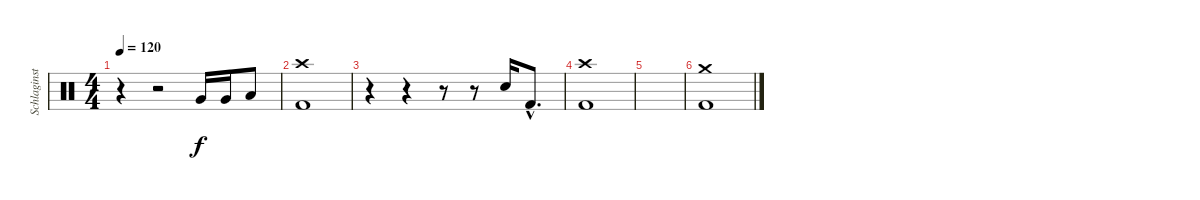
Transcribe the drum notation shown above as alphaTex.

\track ("Schlaginstrumente - Auswahl" "Schlaginst") {instrument percussion}
\staff {score}
\articulation defaults
\ts (4 4)
\tempo 120
\clef neutral
\ks c
r.4{dy f} r.2 "Very Low Tom (hit)".16 "Very Low Tom (hit)".16 "Low Floor Tom (hit)".8 |
("Crash high (hit)" "Kick (hit) 2").1 |
r.4 r.4 r.8 r.8 "Snare (hit) 2".16 "Kick (hit) 2"{hac}.8{d} |
("Crash high (hit)" "Kick (hit) 2").1 |
|
("Crash medium (hit)" "Kick (hit) 2").1
